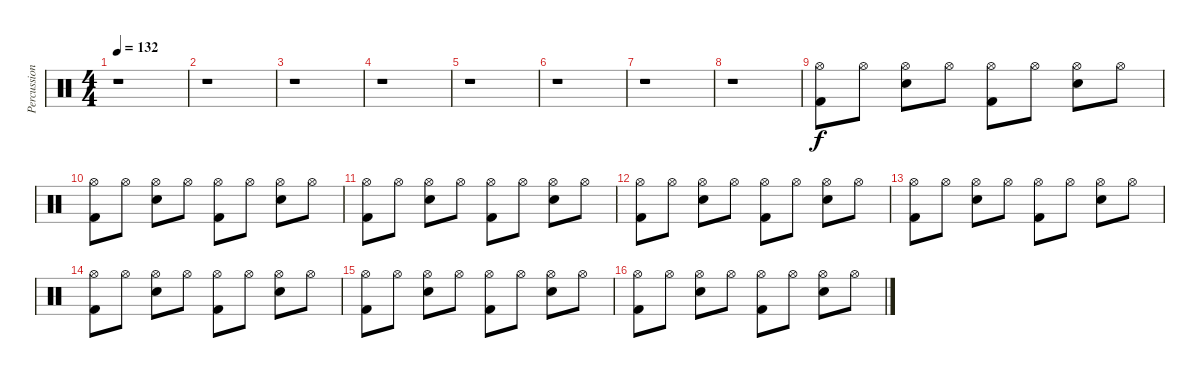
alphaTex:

\track ("Percussion" "Percussion") {instrument percussion}
\staff {score}
\articulation defaults
\ts (4 4)
\tempo 132
\clef neutral
\ks c
r.1{dy f} |
r.1 |
r.1 |
r.1 |
r.1 |
r.1 |
r.1 |
r.1 |
("Hi-Hat (open)" "Kick (hit) 2").8 "Hi-Hat (open)".8 ("Hi-Hat (open)" "Snare (hit) 2").8 "Hi-Hat (open)".8 ("Hi-Hat (open)" "Kick (hit) 2").8 "Hi-Hat (open)".8 ("Hi-Hat (open)" "Snare (hit) 2").8 "Hi-Hat (open)".8 |
("Hi-Hat (open)" "Kick (hit) 2").8 "Hi-Hat (open)".8 ("Hi-Hat (open)" "Snare (hit) 2").8 "Hi-Hat (open)".8 ("Hi-Hat (open)" "Kick (hit) 2").8 "Hi-Hat (open)".8 ("Hi-Hat (open)" "Snare (hit) 2").8 "Hi-Hat (open)".8 |
("Hi-Hat (open)" "Kick (hit) 2").8 "Hi-Hat (open)".8 ("Hi-Hat (open)" "Snare (hit) 2").8 "Hi-Hat (open)".8 ("Hi-Hat (open)" "Kick (hit) 2").8 "Hi-Hat (open)".8 ("Hi-Hat (open)" "Snare (hit) 2").8 "Hi-Hat (open)".8 |
("Hi-Hat (open)" "Kick (hit) 2").8 "Hi-Hat (open)".8 ("Hi-Hat (open)" "Snare (hit) 2").8 "Hi-Hat (open)".8 ("Hi-Hat (open)" "Kick (hit) 2").8 "Hi-Hat (open)".8 ("Hi-Hat (open)" "Snare (hit) 2").8 "Hi-Hat (open)".8 |
("Hi-Hat (open)" "Kick (hit) 2").8 "Hi-Hat (open)".8 ("Hi-Hat (open)" "Snare (hit) 2").8 "Hi-Hat (open)".8 ("Hi-Hat (open)" "Kick (hit) 2").8 "Hi-Hat (open)".8 ("Hi-Hat (open)" "Snare (hit) 2").8 "Hi-Hat (open)".8 |
("Hi-Hat (open)" "Kick (hit) 2").8 "Hi-Hat (open)".8 ("Hi-Hat (open)" "Snare (hit) 2").8 "Hi-Hat (open)".8 ("Hi-Hat (open)" "Kick (hit) 2").8 "Hi-Hat (open)".8 ("Hi-Hat (open)" "Snare (hit) 2").8 "Hi-Hat (open)".8 |
("Hi-Hat (open)" "Kick (hit) 2").8 "Hi-Hat (open)".8 ("Hi-Hat (open)" "Snare (hit) 2").8 "Hi-Hat (open)".8 ("Hi-Hat (open)" "Kick (hit) 2").8 "Hi-Hat (open)".8 ("Hi-Hat (open)" "Snare (hit) 2").8 "Hi-Hat (open)".8 |
("Hi-Hat (open)" "Kick (hit) 2").8 "Hi-Hat (open)".8 ("Hi-Hat (open)" "Snare (hit) 2").8 "Hi-Hat (open)".8 ("Hi-Hat (open)" "Kick (hit) 2").8 "Hi-Hat (open)".8 ("Hi-Hat (open)" "Snare (hit) 2").8 "Hi-Hat (open)".8
